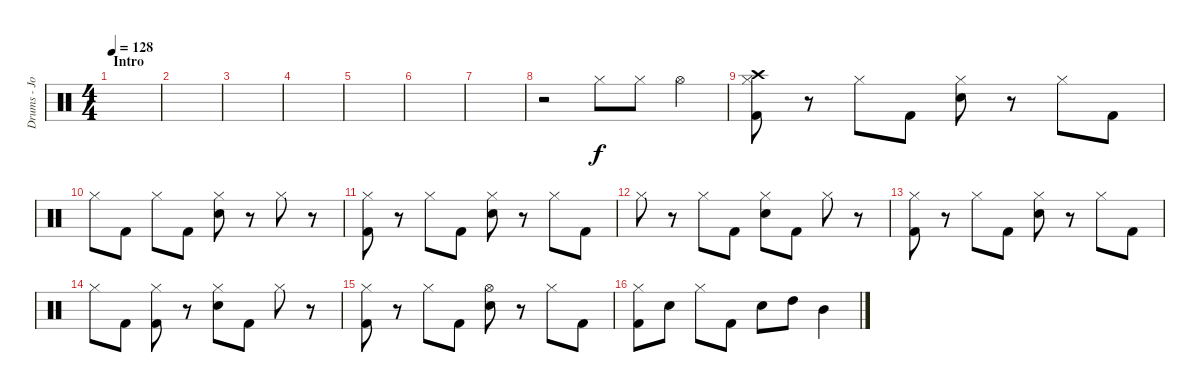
\track ("Drums - John Humphrey" "Drums - Jo") {instrument percussion}
\staff {score}
\articulation defaults
\ts (4 4)
\section ("" "Intro")
\tempo 128
\clef neutral
\ks c
|
|
|
|
|
|
|
r.2 "Hi-Hat (closed)".8 "Hi-Hat (closed)".8 "Hi-Hat (open)".4 |
("Crash high (hit)" "Hi-Hat (closed)" "Kick (hit) 2").8 r.8 "Hi-Hat (closed)".8 "Kick (hit) 2".8 ("Hi-Hat (closed)" "Electric Snare (hit)").8 r.8 "Hi-Hat (closed)".8 "Kick (hit) 2".8 |
"Hi-Hat (closed)".8 "Kick (hit) 2".8 "Hi-Hat (closed)".8 "Kick (hit) 2".8 ("Hi-Hat (closed)" "Electric Snare (hit)").8 r.8 "Hi-Hat (closed)".8 r.8 |
("Hi-Hat (closed)" "Kick (hit) 2").8 r.8 "Hi-Hat (closed)".8 "Kick (hit) 2".8 ("Hi-Hat (closed)" "Electric Snare (hit)").8 r.8 "Hi-Hat (closed)".8 "Kick (hit) 2".8 |
"Hi-Hat (closed)".8 r.8 "Hi-Hat (closed)".8 "Kick (hit) 2".8 ("Hi-Hat (closed)" "Electric Snare (hit)").8 "Kick (hit) 2".8 "Hi-Hat (closed)".8 r.8 |
("Hi-Hat (closed)" "Kick (hit) 2").8 r.8 "Hi-Hat (closed)".8 "Kick (hit) 2".8 ("Hi-Hat (closed)" "Electric Snare (hit)").8 r.8 "Hi-Hat (closed)".8 "Kick (hit) 2".8 |
"Hi-Hat (closed)".8 "Kick (hit) 2".8 ("Hi-Hat (closed)" "Kick (hit) 2").8 r.8 ("Hi-Hat (closed)" "Electric Snare (hit)").8 "Kick (hit) 2".8 "Hi-Hat (closed)".8 r.8 |
("Hi-Hat (closed)" "Kick (hit) 2").8 r.8 "Hi-Hat (closed)".8 "Kick (hit) 2".8 ("Hi-Hat (open)" "Electric Snare (hit)").8 r.8 "Hi-Hat (closed)".8 "Kick (hit) 2".8 |
("Hi-Hat (closed)" "Kick (hit) 2").8 "Electric Snare (hit)".8 "Hi-Hat (closed)".8 "Kick (hit) 2".8 "Electric Snare (hit)".8 "High Tom (hit)".8 "Mid Tom (hit)".4
